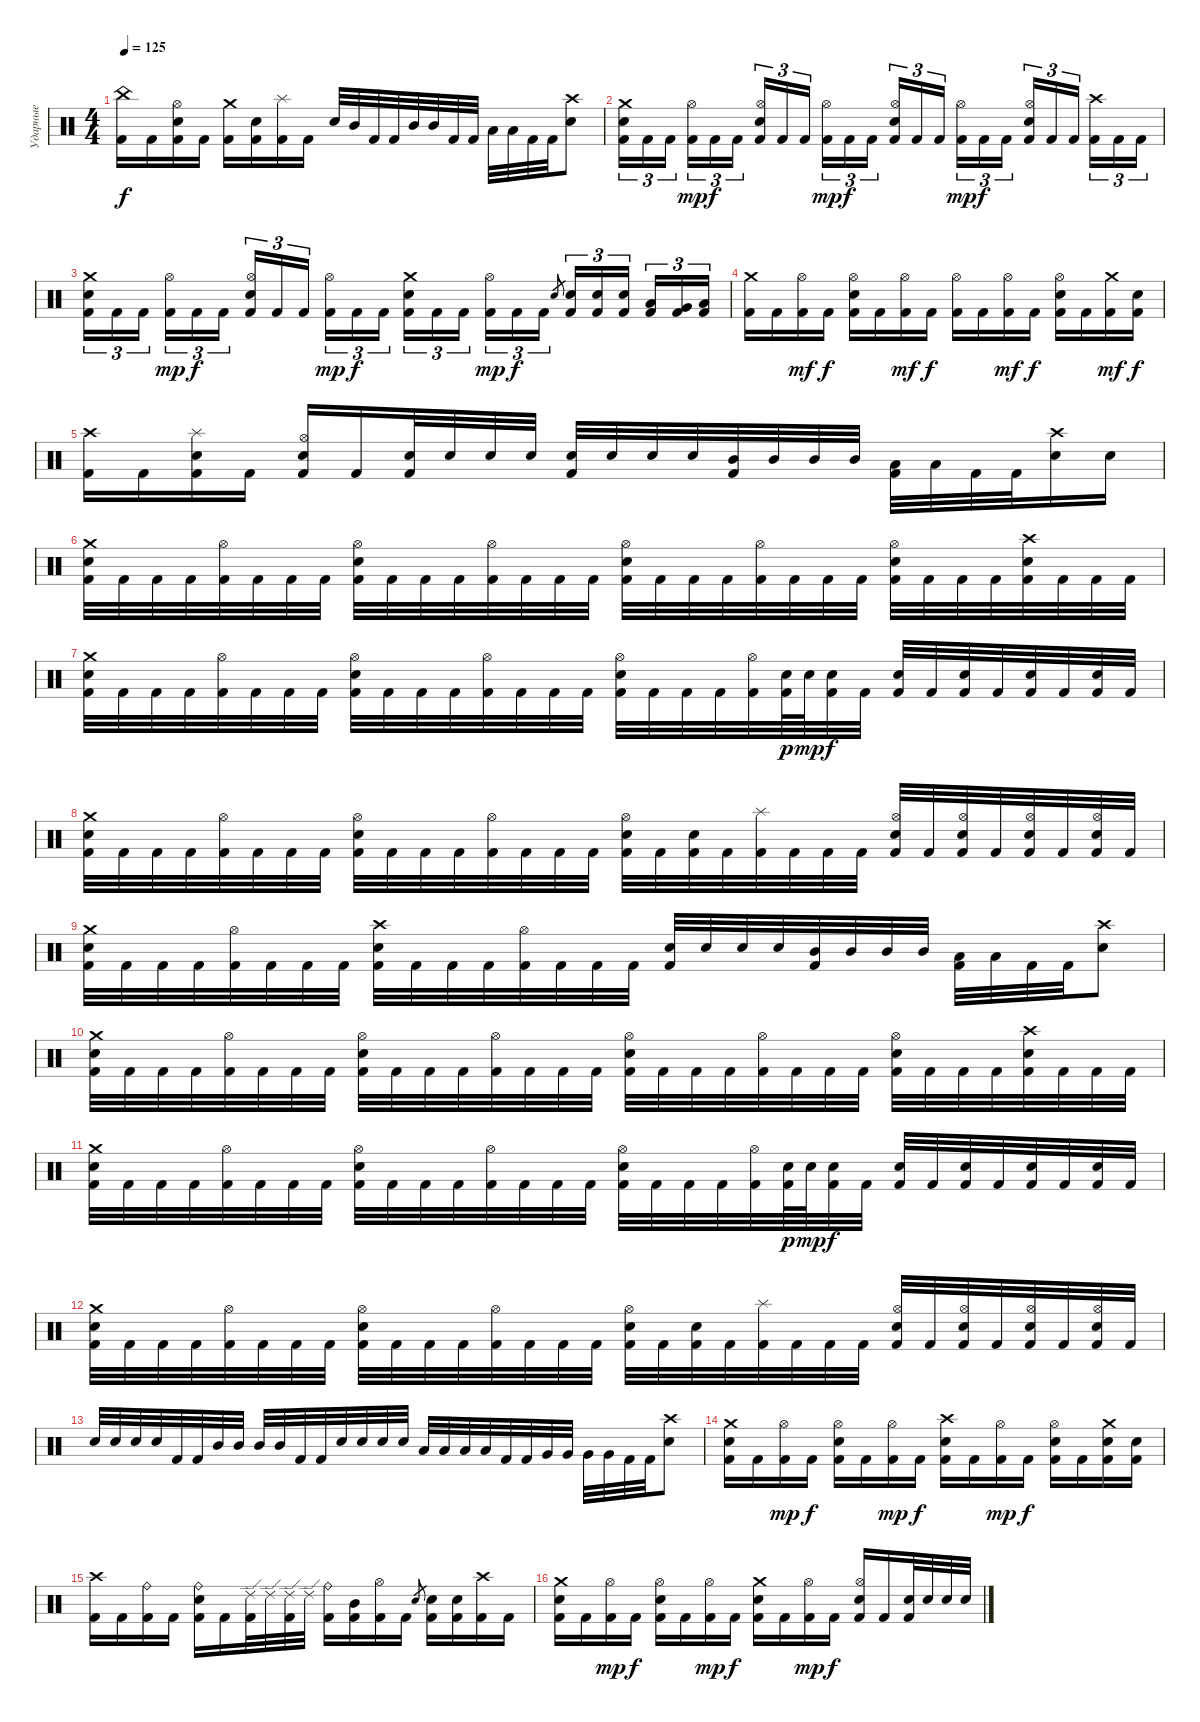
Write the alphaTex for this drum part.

\track ("Ударные" "Ударные") {instrument percussion}
\staff {score}
\articulation defaults
\ts (4 4)
\tempo 125
\clef neutral
\ks c
("China (hit)" "Kick (hit) 2").16{dy f} "Kick (hit) 2".16 ("Hi-Hat (open)" "Electric Snare (hit)" "Kick (hit) 2").16 "Kick (hit) 2".16 ("Crash medium (hit)" "Kick (hit) 2").16 ("Electric Snare (hit)" "Kick (hit) 2").16 ("Splash (hit)" "Kick (hit) 2").16 "Kick (hit) 2".16 "Electric Snare (hit)".32 "Mid Tom (hit)".32 "Kick (hit) 2".32 "Kick (hit) 2".32 "Mid Tom (hit)".32 "Mid Tom (hit)".32 "Kick (hit) 2".32 "Kick (hit) 2".32 "Low Tom (hit)".32 "Low Tom (hit)".32 "Kick (hit) 2".32 "Kick (hit) 2".32 ("Crash high (hit)" "Electric Snare (hit)").8 |
("Crash medium (hit)" "Electric Snare (hit)" "Kick (hit) 2").16{tu (3 2)} "Kick (hit) 2".16{tu (3 2)} "Kick (hit) 2".16{tu (3 2) beam splitsecondary} ("Hi-Hat (open)" "Kick (hit) 2").16{tu (3 2) dy mp} "Kick (hit) 2".16{tu (3 2) dy f} "Kick (hit) 2".16{tu (3 2)} ("Hi-Hat (open)" "Electric Snare (hit)" "Kick (hit) 2").16{tu (3 2)} "Kick (hit) 2".16{tu (3 2)} "Kick (hit) 2".16{tu (3 2) beam splitsecondary} ("Hi-Hat (open)" "Kick (hit) 2").16{tu (3 2) dy mp} "Kick (hit) 2".16{tu (3 2) dy f} "Kick (hit) 2".16{tu (3 2)} ("Hi-Hat (open)" "Electric Snare (hit)" "Kick (hit) 2").16{tu (3 2)} "Kick (hit) 2".16{tu (3 2)} "Kick (hit) 2".16{tu (3 2) beam splitsecondary} ("Hi-Hat (open)" "Kick (hit) 2").16{tu (3 2) dy mp} "Kick (hit) 2".16{tu (3 2) dy f} "Kick (hit) 2".16{tu (3 2)} ("Hi-Hat (open)" "Electric Snare (hit)" "Kick (hit) 2").16{tu (3 2)} "Kick (hit) 2".16{tu (3 2)} "Kick (hit) 2".16{tu (3 2) beam splitsecondary} ("Crash high (hit)" "Kick (hit) 2").16{tu (3 2)} "Kick (hit) 2".16{tu (3 2)} "Kick (hit) 2".16{tu (3 2)} |
("Crash medium (hit)" "Electric Snare (hit)" "Kick (hit) 2").16{tu (3 2)} "Kick (hit) 2".16{tu (3 2)} "Kick (hit) 2".16{tu (3 2) beam splitsecondary} ("Hi-Hat (open)" "Kick (hit) 2").16{tu (3 2) dy mp} "Kick (hit) 2".16{tu (3 2) dy f} "Kick (hit) 2".16{tu (3 2)} ("Hi-Hat (open)" "Electric Snare (hit)" "Kick (hit) 2").16{tu (3 2)} "Kick (hit) 2".16{tu (3 2)} "Kick (hit) 2".16{tu (3 2) beam splitsecondary} ("Hi-Hat (open)" "Kick (hit) 2").16{tu (3 2) dy mp} "Kick (hit) 2".16{tu (3 2) dy f} "Kick (hit) 2".16{tu (3 2)} ("Crash medium (hit)" "Electric Snare (hit)" "Kick (hit) 2").16{tu (3 2)} "Kick (hit) 2".16{tu (3 2)} "Kick (hit) 2".16{tu (3 2) beam splitsecondary} ("Hi-Hat (open)" "Kick (hit) 2").16{tu (3 2) dy mp} "Kick (hit) 2".16{tu (3 2) dy f} "Kick (hit) 2".16{tu (3 2)} "Electric Snare (hit)".8{gr} ("Electric Snare (hit)" "Kick (hit) 2").16{tu (3 2)} ("Electric Snare (hit)" "Kick (hit) 2").16{tu (3 2)} ("Electric Snare (hit)" "Kick (hit) 2").16{tu (3 2) beam splitsecondary} ("Low Tom (hit)" "Kick (hit) 2").16{tu (3 2)} ("Very Low Tom (hit)" "Kick (hit) 2").16{tu (3 2)} ("Low Floor Tom (hit)" "Kick (hit) 2").16{tu (3 2)} |
("Crash medium (hit)" "Kick (hit) 2").16 "Kick (hit) 2".16 ("Hi-Hat (open)" "Kick (hit) 2").16{dy mf} "Kick (hit) 2".16{dy f} ("Hi-Hat (open)" "Electric Snare (hit)" "Kick (hit) 2").16 "Kick (hit) 2".16 ("Hi-Hat (open)" "Kick (hit) 2").16{dy mf} "Kick (hit) 2".16{dy f} ("Hi-Hat (open)" "Kick (hit) 2").16 "Kick (hit) 2".16 ("Hi-Hat (open)" "Kick (hit) 2").16{dy mf} "Kick (hit) 2".16{dy f} ("Hi-Hat (open)" "Electric Snare (hit)" "Kick (hit) 2").16 "Kick (hit) 2".16 ("Crash medium (hit)" "Kick (hit) 2").16{dy mf} ("Electric Snare (hit)" "Kick (hit) 2").16{dy f} |
("Crash high (hit)" "Kick (hit) 2").16 "Kick (hit) 2".16 ("Splash (hit)" "Electric Snare (hit)" "Kick (hit) 2").16 "Kick (hit) 2".16 ("Hi-Hat (open)" "Electric Snare (hit)" "Kick (hit) 2").16 "Kick (hit) 2".16 ("Electric Snare (hit)" "Kick (hit) 2").32 "Electric Snare (hit)".32 "Electric Snare (hit)".32 "Electric Snare (hit)".32 ("Electric Snare (hit)" "Kick (hit) 2").32 "Electric Snare (hit)".32 "Electric Snare (hit)".32 "Electric Snare (hit)".32 ("Mid Tom (hit)" "Kick (hit) 2").32 "Mid Tom (hit)".32 "Mid Tom (hit)".32 "Mid Tom (hit)".32 ("Low Tom (hit)" "Kick (hit) 2").32 "Low Tom (hit)".32 "Kick (hit) 2".32 "Kick (hit) 2".32 ("Crash high (hit)" "Electric Snare (hit)").16 "Electric Snare (hit)".16 |
("Crash medium (hit)" "Electric Snare (hit)" "Kick (hit) 2").32 "Kick (hit) 2".32 "Kick (hit) 2".32 "Kick (hit) 2".32 ("Hi-Hat (open)" "Kick (hit) 2").32 "Kick (hit) 2".32 "Kick (hit) 2".32 "Kick (hit) 2".32 ("Hi-Hat (open)" "Electric Snare (hit)" "Kick (hit) 2").32 "Kick (hit) 2".32 "Kick (hit) 2".32 "Kick (hit) 2".32 ("Hi-Hat (open)" "Kick (hit) 2").32 "Kick (hit) 2".32 "Kick (hit) 2".32 "Kick (hit) 2".32 ("Hi-Hat (open)" "Electric Snare (hit)" "Kick (hit) 2").32 "Kick (hit) 2".32 "Kick (hit) 2".32 "Kick (hit) 2".32 ("Hi-Hat (open)" "Kick (hit) 2").32 "Kick (hit) 2".32 "Kick (hit) 2".32 "Kick (hit) 2".32 ("Hi-Hat (open)" "Electric Snare (hit)" "Kick (hit) 2").32 "Kick (hit) 2".32 "Kick (hit) 2".32 "Kick (hit) 2".32 ("Crash high (hit)" "Electric Snare (hit)" "Kick (hit) 2").32 "Kick (hit) 2".32 "Kick (hit) 2".32 "Kick (hit) 2".32 |
("Crash medium (hit)" "Electric Snare (hit)" "Kick (hit) 2").32 "Kick (hit) 2".32 "Kick (hit) 2".32 "Kick (hit) 2".32 ("Hi-Hat (open)" "Kick (hit) 2").32 "Kick (hit) 2".32 "Kick (hit) 2".32 "Kick (hit) 2".32 ("Hi-Hat (open)" "Electric Snare (hit)" "Kick (hit) 2").32 "Kick (hit) 2".32 "Kick (hit) 2".32 "Kick (hit) 2".32 ("Hi-Hat (open)" "Kick (hit) 2").32 "Kick (hit) 2".32 "Kick (hit) 2".32 "Kick (hit) 2".32 ("Hi-Hat (open)" "Electric Snare (hit)" "Kick (hit) 2").32 "Kick (hit) 2".32 "Kick (hit) 2".32 "Kick (hit) 2".32 ("Hi-Hat (open)" "Kick (hit) 2").32 ("Electric Snare (hit)" "Kick (hit) 2").64{dy p} "Electric Snare (hit)".64{dy mp} ("Electric Snare (hit)" "Kick (hit) 2").32{dy f} "Kick (hit) 2".32 ("Electric Snare (hit)" "Kick (hit) 2").32 "Kick (hit) 2".32 ("Electric Snare (hit)" "Kick (hit) 2").32 "Kick (hit) 2".32 ("Electric Snare (hit)" "Kick (hit) 2").32 "Kick (hit) 2".32 ("Electric Snare (hit)" "Kick (hit) 2").32 "Kick (hit) 2".32 |
("Crash medium (hit)" "Electric Snare (hit)" "Kick (hit) 2").32 "Kick (hit) 2".32 "Kick (hit) 2".32 "Kick (hit) 2".32 ("Hi-Hat (open)" "Kick (hit) 2").32 "Kick (hit) 2".32 "Kick (hit) 2".32 "Kick (hit) 2".32 ("Hi-Hat (open)" "Electric Snare (hit)" "Kick (hit) 2").32 "Kick (hit) 2".32 "Kick (hit) 2".32 "Kick (hit) 2".32 ("Hi-Hat (open)" "Kick (hit) 2").32 "Kick (hit) 2".32 "Kick (hit) 2".32 "Kick (hit) 2".32 ("Hi-Hat (open)" "Electric Snare (hit)" "Kick (hit) 2").32 "Kick (hit) 2".32 ("Electric Snare (hit)" "Kick (hit) 2").32 "Kick (hit) 2".32 ("Splash (hit)" "Kick (hit) 2").32 "Kick (hit) 2".32 "Kick (hit) 2".32 "Kick (hit) 2".32 ("Hi-Hat (open)" "Electric Snare (hit)" "Kick (hit) 2").32 "Kick (hit) 2".32 ("Hi-Hat (open)" "Electric Snare (hit)" "Kick (hit) 2").32 "Kick (hit) 2".32 ("Hi-Hat (open)" "Electric Snare (hit)" "Kick (hit) 2").32 "Kick (hit) 2".32 ("Hi-Hat (open)" "Electric Snare (hit)" "Kick (hit) 2").32 "Kick (hit) 2".32 |
("Crash medium (hit)" "Electric Snare (hit)" "Kick (hit) 2").32 "Kick (hit) 2".32 "Kick (hit) 2".32 "Kick (hit) 2".32 ("Hi-Hat (open)" "Kick (hit) 2").32 "Kick (hit) 2".32 "Kick (hit) 2".32 "Kick (hit) 2".32 ("Crash high (hit)" "Electric Snare (hit)" "Kick (hit) 2").32 "Kick (hit) 2".32 "Kick (hit) 2".32 "Kick (hit) 2".32 ("Hi-Hat (open)" "Kick (hit) 2").32 "Kick (hit) 2".32 "Kick (hit) 2".32 "Kick (hit) 2".32 ("Electric Snare (hit)" "Kick (hit) 2").32 "Electric Snare (hit)".32 "Electric Snare (hit)".32 "Electric Snare (hit)".32 ("Mid Tom (hit)" "Kick (hit) 2").32 "Mid Tom (hit)".32 "Mid Tom (hit)".32 "Mid Tom (hit)".32 ("Low Tom (hit)" "Kick (hit) 2").32 "Low Tom (hit)".32 "Kick (hit) 2".32 "Kick (hit) 2".32 ("Crash high (hit)" "Electric Snare (hit)").8 |
("Crash medium (hit)" "Electric Snare (hit)" "Kick (hit) 2").32 "Kick (hit) 2".32 "Kick (hit) 2".32 "Kick (hit) 2".32 ("Hi-Hat (open)" "Kick (hit) 2").32 "Kick (hit) 2".32 "Kick (hit) 2".32 "Kick (hit) 2".32 ("Hi-Hat (open)" "Electric Snare (hit)" "Kick (hit) 2").32 "Kick (hit) 2".32 "Kick (hit) 2".32 "Kick (hit) 2".32 ("Hi-Hat (open)" "Kick (hit) 2").32 "Kick (hit) 2".32 "Kick (hit) 2".32 "Kick (hit) 2".32 ("Hi-Hat (open)" "Electric Snare (hit)" "Kick (hit) 2").32 "Kick (hit) 2".32 "Kick (hit) 2".32 "Kick (hit) 2".32 ("Hi-Hat (open)" "Kick (hit) 2").32 "Kick (hit) 2".32 "Kick (hit) 2".32 "Kick (hit) 2".32 ("Hi-Hat (open)" "Electric Snare (hit)" "Kick (hit) 2").32 "Kick (hit) 2".32 "Kick (hit) 2".32 "Kick (hit) 2".32 ("Crash high (hit)" "Electric Snare (hit)" "Kick (hit) 2").32 "Kick (hit) 2".32 "Kick (hit) 2".32 "Kick (hit) 2".32 |
("Crash medium (hit)" "Electric Snare (hit)" "Kick (hit) 2").32 "Kick (hit) 2".32 "Kick (hit) 2".32 "Kick (hit) 2".32 ("Hi-Hat (open)" "Kick (hit) 2").32 "Kick (hit) 2".32 "Kick (hit) 2".32 "Kick (hit) 2".32 ("Hi-Hat (open)" "Electric Snare (hit)" "Kick (hit) 2").32 "Kick (hit) 2".32 "Kick (hit) 2".32 "Kick (hit) 2".32 ("Hi-Hat (open)" "Kick (hit) 2").32 "Kick (hit) 2".32 "Kick (hit) 2".32 "Kick (hit) 2".32 ("Hi-Hat (open)" "Electric Snare (hit)" "Kick (hit) 2").32 "Kick (hit) 2".32 "Kick (hit) 2".32 "Kick (hit) 2".32 ("Hi-Hat (open)" "Kick (hit) 2").32 ("Electric Snare (hit)" "Kick (hit) 2").64{dy p} "Electric Snare (hit)".64{dy mp} ("Electric Snare (hit)" "Kick (hit) 2").32{dy f} "Kick (hit) 2".32 ("Electric Snare (hit)" "Kick (hit) 2").32 "Kick (hit) 2".32 ("Electric Snare (hit)" "Kick (hit) 2").32 "Kick (hit) 2".32 ("Electric Snare (hit)" "Kick (hit) 2").32 "Kick (hit) 2".32 ("Electric Snare (hit)" "Kick (hit) 2").32 "Kick (hit) 2".32 |
("Crash medium (hit)" "Electric Snare (hit)" "Kick (hit) 2").32 "Kick (hit) 2".32 "Kick (hit) 2".32 "Kick (hit) 2".32 ("Hi-Hat (open)" "Kick (hit) 2").32 "Kick (hit) 2".32 "Kick (hit) 2".32 "Kick (hit) 2".32 ("Hi-Hat (open)" "Electric Snare (hit)" "Kick (hit) 2").32 "Kick (hit) 2".32 "Kick (hit) 2".32 "Kick (hit) 2".32 ("Hi-Hat (open)" "Kick (hit) 2").32 "Kick (hit) 2".32 "Kick (hit) 2".32 "Kick (hit) 2".32 ("Hi-Hat (open)" "Electric Snare (hit)" "Kick (hit) 2").32 "Kick (hit) 2".32 ("Electric Snare (hit)" "Kick (hit) 2").32 "Kick (hit) 2".32 ("Splash (hit)" "Kick (hit) 2").32 "Kick (hit) 2".32 "Kick (hit) 2".32 "Kick (hit) 2".32 ("Hi-Hat (open)" "Electric Snare (hit)" "Kick (hit) 2").32 "Kick (hit) 2".32 ("Hi-Hat (open)" "Electric Snare (hit)" "Kick (hit) 2").32 "Kick (hit) 2".32 ("Hi-Hat (open)" "Electric Snare (hit)" "Kick (hit) 2").32 "Kick (hit) 2".32 ("Hi-Hat (open)" "Electric Snare (hit)" "Kick (hit) 2").32 "Kick (hit) 2".32 |
"Electric Snare (hit)".32 "Electric Snare (hit)".32 "Electric Snare (hit)".32 "Electric Snare (hit)".32 "Kick (hit) 2".32 "Kick (hit) 2".32 "Mid Tom (hit)".32 "Mid Tom (hit)".32 "Mid Tom (hit)".32 "Mid Tom (hit)".32 "Kick (hit) 2".32 "Kick (hit) 2".32 "Electric Snare (hit)".32 "Electric Snare (hit)".32 "Electric Snare (hit)".32 "Electric Snare (hit)".32 "Low Tom (hit)".32 "Low Tom (hit)".32 "Low Tom (hit)".32 "Low Tom (hit)".32 "Kick (hit) 2".32 "Kick (hit) 2".32 "Very Low Tom (hit)".32 "Very Low Tom (hit)".32 "Very Low Tom (hit)".32 "Very Low Tom (hit)".32 "Kick (hit) 2".32 "Kick (hit) 2".32 ("Crash high (hit)" "Electric Snare (hit)").8 |
("Crash medium (hit)" "Electric Snare (hit)" "Kick (hit) 2").16 "Kick (hit) 2".16 ("Hi-Hat (open)" "Kick (hit) 2").16{dy mp} "Kick (hit) 2".16{dy f} ("Hi-Hat (open)" "Electric Snare (hit)" "Kick (hit) 2").16 "Kick (hit) 2".16 ("Hi-Hat (open)" "Kick (hit) 2").16{dy mp} "Kick (hit) 2".16{dy f} ("Crash high (hit)" "Electric Snare (hit)" "Kick (hit) 2").16 "Kick (hit) 2".16 ("Hi-Hat (open)" "Kick (hit) 2").16{dy mp} "Kick (hit) 2".16{dy f} ("Hi-Hat (open)" "Electric Snare (hit)" "Kick (hit) 2").16 "Kick (hit) 2".16 ("Crash medium (hit)" "Electric Snare (hit)" "Kick (hit) 2").16 ("Electric Snare (hit)" "Kick (hit) 2").16 |
("Crash high (hit)" "Kick (hit) 2").16 "Kick (hit) 2".16 ("Ride (bell)" "Kick (hit) 2").16 "Kick (hit) 2".16 ("Ride (bell)" "Electric Snare (hit)" "Kick (hit) 2").16 "Kick (hit) 2".16 ("Ride (edge) 2" "Kick (hit) 2").32 "Ride (edge) 2".32 ("Ride (edge) 2" "Kick (hit) 2").32 "Ride (edge) 2".32 ("Ride (bell)" "Kick (hit) 2").16 ("Mid Tom (hit)" "Kick (hit) 2").16 ("Hi-Hat (open)" "Kick (hit) 2").16 "Kick (hit) 2".16 "Electric Snare (hit)".8{gr} ("Electric Snare (hit)" "Kick (hit) 2").16 ("Electric Snare (hit)" "Kick (hit) 2").16 ("Crash high (hit)" "Kick (hit) 2").16 "Kick (hit) 2".16 |
("Crash medium (hit)" "Electric Snare (hit)" "Kick (hit) 2").16 "Kick (hit) 2".16 ("Hi-Hat (open)" "Kick (hit) 2").16{dy mp} "Kick (hit) 2".16{dy f} ("Hi-Hat (open)" "Electric Snare (hit)" "Kick (hit) 2").16 "Kick (hit) 2".16 ("Hi-Hat (open)" "Kick (hit) 2").16{dy mp} "Kick (hit) 2".16{dy f} ("Crash medium (hit)" "Electric Snare (hit)" "Kick (hit) 2").16 "Kick (hit) 2".16 ("Hi-Hat (open)" "Kick (hit) 2").16{dy mp} "Kick (hit) 2".16{dy f} ("Hi-Hat (open)" "Electric Snare (hit)" "Kick (hit) 2").16 "Kick (hit) 2".16 ("Electric Snare (hit)" "Kick (hit) 2").32 "Electric Snare (hit)".32 "Electric Snare (hit)".32 "Electric Snare (hit)".32
